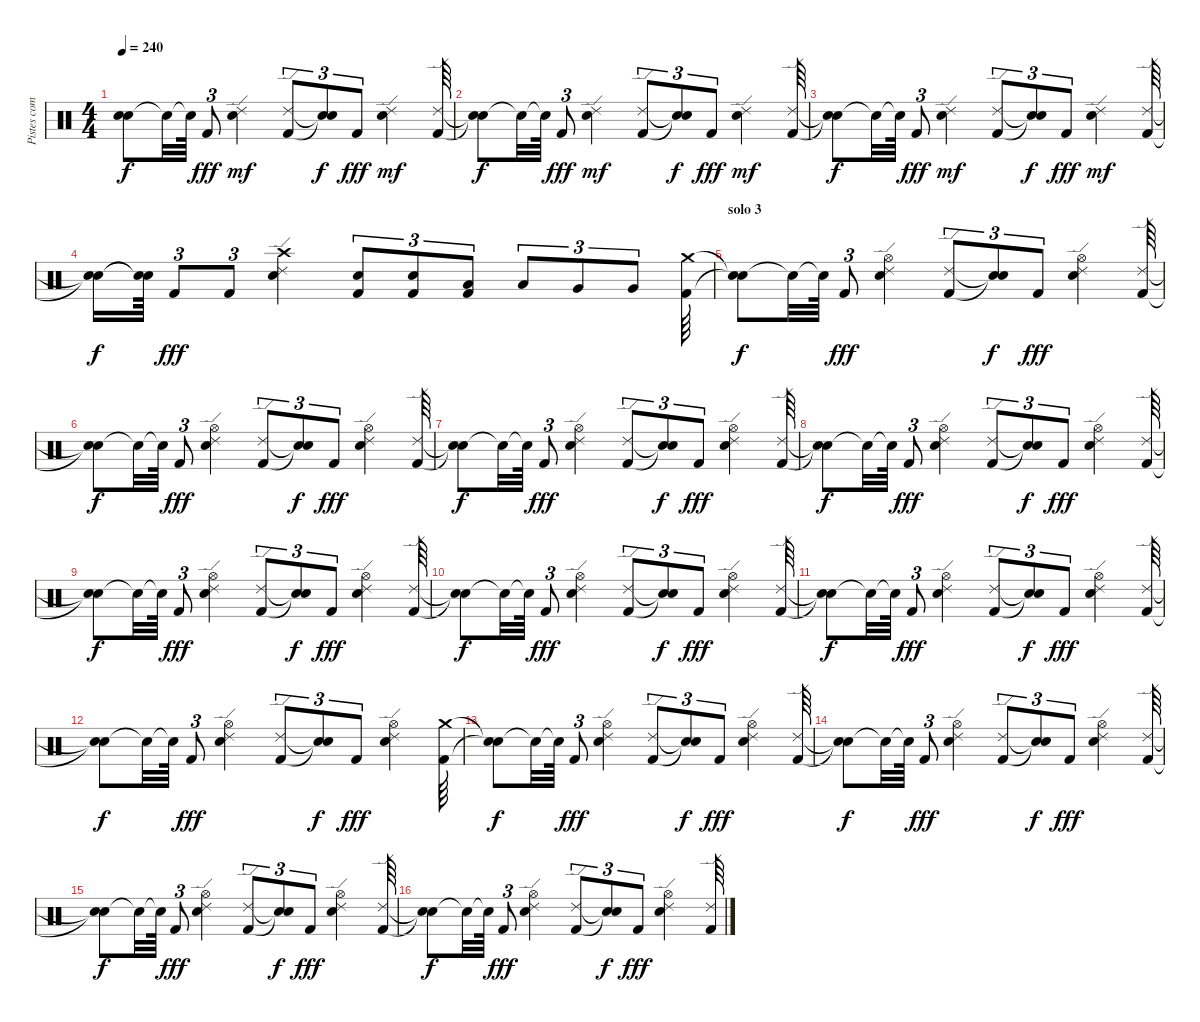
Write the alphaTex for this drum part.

\track ("Pistes combinées" "Pistes com") {instrument percussion}
\staff {score}
\articulation defaults
\ts (4 4)
\tempo 240
\clef neutral
\ks c
("Snare (hit)"{t} "Snare (hit)"{t}).8{dy f} "Snare (hit)"{t}.32 "Snare (hit)"{t}.64 "Kick (hit) 2".8{tu (3 2) dy fff} ("Electric Snare (hit)" "Ride (edge) 2").4{dy mf} ("Kick (hit) 2" "Ride (edge) 2").8{tu (3 2)} ("Snare (hit)"{t} "Snare (hit)"{t}).8{tu (3 2) dy f} "Kick (hit) 2".8{tu (3 2) dy fff} ("Electric Snare (hit)" "Ride (edge) 2").4{dy mf} ("Kick (hit) 2" "Ride (edge) 2").64 |
("Snare (hit)"{t} "Snare (hit)"{t}).8{dy f} "Snare (hit)"{t}.32 "Snare (hit)"{t}.64 "Kick (hit) 2".8{tu (3 2) dy fff} ("Electric Snare (hit)" "Ride (edge) 2").4{dy mf} ("Kick (hit) 2" "Ride (edge) 2").8{tu (3 2)} ("Snare (hit)"{t} "Snare (hit)"{t}).8{tu (3 2) dy f} "Kick (hit) 2".8{tu (3 2) dy fff} ("Electric Snare (hit)" "Ride (edge) 2").4{dy mf} ("Kick (hit) 2" "Ride (edge) 2").64 |
("Snare (hit)"{t} "Snare (hit)"{t}).8{dy f} "Snare (hit)"{t}.32 "Snare (hit)"{t}.64 "Kick (hit) 2".8{tu (3 2) dy fff} ("Electric Snare (hit)" "Ride (edge) 2").4{dy mf} ("Kick (hit) 2" "Ride (edge) 2").8{tu (3 2)} ("Snare (hit)"{t} "Snare (hit)"{t}).8{tu (3 2) dy f} "Kick (hit) 2".8{tu (3 2) dy fff} ("Electric Snare (hit)" "Ride (edge) 2").4{dy mf} ("Kick (hit) 2" "Ride (edge) 2").64 |
("Snare (hit)"{t} "Snare (hit)"{t}).16{dy f} ("Snare (hit)"{t} "Snare (hit)"{t}).64 "Kick (hit) 2".8{tu (3 2) dy fff} "Kick (hit) 2".8{tu (3 2)} ("Electric Snare (hit)" "Ride (edge) 2" "Crash high (hit)").4 ("Kick (hit) 2" "Electric Snare (hit)").8{tu (3 2)} ("Kick (hit) 2" "Electric Snare (hit)").8{tu (3 2)} ("Kick (hit) 2" "Low Tom (hit)").8{tu (3 2)} "Low Tom (hit)".8{tu (3 2)} "Very Low Tom (hit)".8{tu (3 2)} "Very Low Tom (hit)".8{tu (3 2)} ("Kick (hit) 2" "Crash medium (hit)").64 |
\section ("" "solo 3")
("Snare (hit)"{t} "Snare (hit)"{t}).8{dy f} "Snare (hit)"{t}.32 "Snare (hit)"{t}.64 "Kick (hit) 2".8{tu (3 2) dy fff} ("Electric Snare (hit)" "Ride (edge) 2" "Hi-Hat (open)").4 ("Kick (hit) 2" "Ride (edge) 2").8{tu (3 2)} ("Snare (hit)"{t} "Snare (hit)"{t}).8{tu (3 2) dy f} "Kick (hit) 2".8{tu (3 2) dy fff} ("Electric Snare (hit)" "Ride (edge) 2" "Hi-Hat (open)").4 ("Kick (hit) 2" "Ride (edge) 2").64 |
("Snare (hit)"{t} "Snare (hit)"{t}).8{dy f} "Snare (hit)"{t}.32 "Snare (hit)"{t}.64 "Kick (hit) 2".8{tu (3 2) dy fff} ("Electric Snare (hit)" "Ride (edge) 2" "Hi-Hat (open)").4 ("Kick (hit) 2" "Ride (edge) 2").8{tu (3 2)} ("Snare (hit)"{t} "Snare (hit)"{t}).8{tu (3 2) dy f} "Kick (hit) 2".8{tu (3 2) dy fff} ("Electric Snare (hit)" "Ride (edge) 2" "Hi-Hat (open)").4 ("Kick (hit) 2" "Ride (edge) 2").64 |
("Snare (hit)"{t} "Snare (hit)"{t}).8{dy f} "Snare (hit)"{t}.32 "Snare (hit)"{t}.64 "Kick (hit) 2".8{tu (3 2) dy fff} ("Electric Snare (hit)" "Ride (edge) 2" "Hi-Hat (open)").4 ("Kick (hit) 2" "Ride (edge) 2").8{tu (3 2)} ("Snare (hit)"{t} "Snare (hit)"{t}).8{tu (3 2) dy f} "Kick (hit) 2".8{tu (3 2) dy fff} ("Electric Snare (hit)" "Ride (edge) 2" "Hi-Hat (open)").4 ("Kick (hit) 2" "Ride (edge) 2").64 |
("Snare (hit)"{t} "Snare (hit)"{t}).8{dy f} "Snare (hit)"{t}.32 "Snare (hit)"{t}.64 "Kick (hit) 2".8{tu (3 2) dy fff} ("Electric Snare (hit)" "Ride (edge) 2" "Hi-Hat (open)").4 ("Kick (hit) 2" "Ride (edge) 2").8{tu (3 2)} ("Snare (hit)"{t} "Snare (hit)"{t}).8{tu (3 2) dy f} "Kick (hit) 2".8{tu (3 2) dy fff} ("Electric Snare (hit)" "Ride (edge) 2" "Hi-Hat (open)").4 ("Kick (hit) 2" "Ride (edge) 2").64 |
("Snare (hit)"{t} "Snare (hit)"{t}).8{dy f} "Snare (hit)"{t}.32 "Snare (hit)"{t}.64 "Kick (hit) 2".8{tu (3 2) dy fff} ("Electric Snare (hit)" "Ride (edge) 2" "Hi-Hat (open)").4 ("Kick (hit) 2" "Ride (edge) 2").8{tu (3 2)} ("Snare (hit)"{t} "Snare (hit)"{t}).8{tu (3 2) dy f} "Kick (hit) 2".8{tu (3 2) dy fff} ("Electric Snare (hit)" "Ride (edge) 2" "Hi-Hat (open)").4 ("Kick (hit) 2" "Ride (edge) 2").64 |
("Snare (hit)"{t} "Snare (hit)"{t}).8{dy f} "Snare (hit)"{t}.32 "Snare (hit)"{t}.64 "Kick (hit) 2".8{tu (3 2) dy fff} ("Electric Snare (hit)" "Ride (edge) 2" "Hi-Hat (open)").4 ("Kick (hit) 2" "Ride (edge) 2").8{tu (3 2)} ("Snare (hit)"{t} "Snare (hit)"{t}).8{tu (3 2) dy f} "Kick (hit) 2".8{tu (3 2) dy fff} ("Electric Snare (hit)" "Ride (edge) 2" "Hi-Hat (open)").4 ("Kick (hit) 2" "Ride (edge) 2").64 |
("Snare (hit)"{t} "Snare (hit)"{t}).8{dy f} "Snare (hit)"{t}.32 "Snare (hit)"{t}.64 "Kick (hit) 2".8{tu (3 2) dy fff} ("Electric Snare (hit)" "Ride (edge) 2" "Hi-Hat (open)").4 ("Kick (hit) 2" "Ride (edge) 2").8{tu (3 2)} ("Snare (hit)"{t} "Snare (hit)"{t}).8{tu (3 2) dy f} "Kick (hit) 2".8{tu (3 2) dy fff} ("Electric Snare (hit)" "Ride (edge) 2" "Hi-Hat (open)").4 ("Kick (hit) 2" "Ride (edge) 2").64 |
("Snare (hit)"{t} "Snare (hit)"{t}).8{dy f} "Snare (hit)"{t}.32 "Snare (hit)"{t}.64 "Kick (hit) 2".8{tu (3 2) dy fff} ("Electric Snare (hit)" "Ride (edge) 2" "Hi-Hat (open)").4 ("Kick (hit) 2" "Ride (edge) 2").8{tu (3 2)} ("Snare (hit)"{t} "Snare (hit)"{t}).8{tu (3 2) dy f} "Kick (hit) 2".8{tu (3 2) dy fff} ("Electric Snare (hit)" "Ride (edge) 2" "Hi-Hat (open)").4 ("Kick (hit) 2" "Crash medium (hit)").64 |
("Snare (hit)"{t} "Snare (hit)"{t}).8{dy f} "Snare (hit)"{t}.32 "Snare (hit)"{t}.64 "Kick (hit) 2".8{tu (3 2) dy fff} ("Electric Snare (hit)" "Ride (edge) 2" "Hi-Hat (open)").4 ("Kick (hit) 2" "Ride (edge) 2").8{tu (3 2)} ("Snare (hit)"{t} "Snare (hit)"{t}).8{tu (3 2) dy f} "Kick (hit) 2".8{tu (3 2) dy fff} ("Electric Snare (hit)" "Ride (edge) 2" "Hi-Hat (open)").4 ("Kick (hit) 2" "Ride (edge) 2").64 |
("Snare (hit)"{t} "Snare (hit)"{t}).8{dy f} "Snare (hit)"{t}.32 "Snare (hit)"{t}.64 "Kick (hit) 2".8{tu (3 2) dy fff} ("Electric Snare (hit)" "Ride (edge) 2" "Hi-Hat (open)").4 ("Kick (hit) 2" "Ride (edge) 2").8{tu (3 2)} ("Snare (hit)"{t} "Snare (hit)"{t}).8{tu (3 2) dy f} "Kick (hit) 2".8{tu (3 2) dy fff} ("Electric Snare (hit)" "Ride (edge) 2" "Hi-Hat (open)").4 ("Kick (hit) 2" "Ride (edge) 2").64 |
("Snare (hit)"{t} "Snare (hit)"{t}).8{dy f} "Snare (hit)"{t}.32 "Snare (hit)"{t}.64 "Kick (hit) 2".8{tu (3 2) dy fff} ("Electric Snare (hit)" "Ride (edge) 2" "Hi-Hat (open)").4 ("Kick (hit) 2" "Ride (edge) 2").8{tu (3 2)} ("Snare (hit)"{t} "Snare (hit)"{t}).8{tu (3 2) dy f} "Kick (hit) 2".8{tu (3 2) dy fff} ("Electric Snare (hit)" "Ride (edge) 2" "Hi-Hat (open)").4 ("Kick (hit) 2" "Ride (edge) 2").64 |
("Snare (hit)"{t} "Snare (hit)"{t}).8{dy f} "Snare (hit)"{t}.32 "Snare (hit)"{t}.64 "Kick (hit) 2".8{tu (3 2) dy fff} ("Electric Snare (hit)" "Ride (edge) 2" "Hi-Hat (open)").4 ("Kick (hit) 2" "Ride (edge) 2").8{tu (3 2)} ("Snare (hit)"{t} "Snare (hit)"{t}).8{tu (3 2) dy f} "Kick (hit) 2".8{tu (3 2) dy fff} ("Electric Snare (hit)" "Ride (edge) 2" "Hi-Hat (open)").4 ("Kick (hit) 2" "Ride (edge) 2").64
